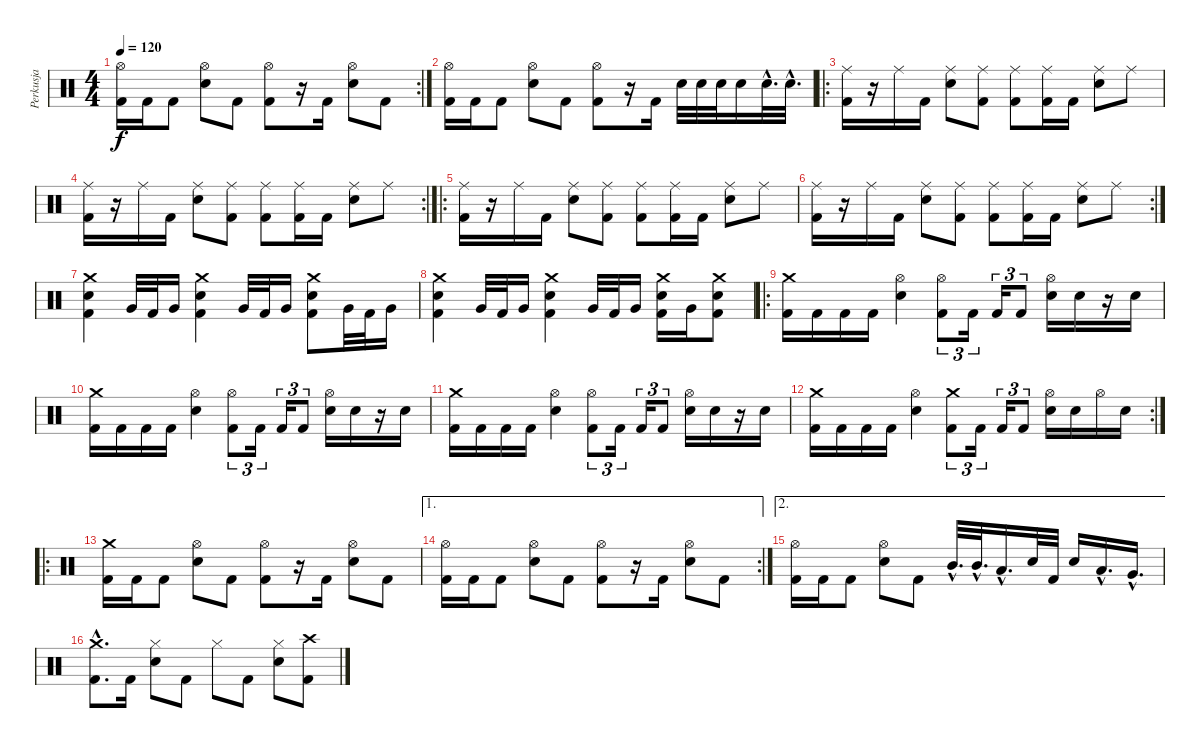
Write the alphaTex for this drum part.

\track ("Perkusja" "Perkusja") {instrument percussion}
\staff {score}
\articulation defaults
\rc 2
\ts (4 4)
\tempo 120
\clef neutral
\ks c
("Hi-Hat (open)" "Kick (hit) 2").16{dy f} "Kick (hit) 2".16 "Kick (hit) 2".8 ("Hi-Hat (open)" "Snare (hit) 2").8 "Kick (hit) 2".8 ("Hi-Hat (open)" "Kick (hit) 2").8 r.16 "Kick (hit) 2".16 ("Hi-Hat (open)" "Snare (hit) 2").8 "Kick (hit) 2".8 |
("Hi-Hat (open)" "Kick (hit) 2").16 "Kick (hit) 2".16 "Kick (hit) 2".8 ("Hi-Hat (open)" "Snare (hit) 2").8 "Kick (hit) 2".8 ("Hi-Hat (open)" "Kick (hit) 2").8 r.16 "Kick (hit) 2".16 "Snare (hit) 2".32 "Snare (hit) 2".32 "Snare (hit) 2".32 "Snare (hit) 2".16 "Snare (hit) 2"{hac}.32{d} "Snare (hit) 2"{hac}.32{d} |
\ro
("Ride (middle)" "Kick (hit) 2").16 r.16 "Ride (middle)".16 "Kick (hit) 2".16 ("Ride (middle)" "Snare (hit) 2").8 ("Ride (middle)" "Kick (hit) 2").8 ("Ride (middle)" "Kick (hit) 2").8 ("Ride (middle)" "Kick (hit) 2").16 "Kick (hit) 2".16 ("Ride (middle)" "Snare (hit) 2").8 "Ride (middle)".8 |
\rc 2
("Ride (middle)" "Kick (hit) 2").16 r.16 "Ride (middle)".16 "Kick (hit) 2".16 ("Ride (middle)" "Snare (hit) 2").8 ("Ride (middle)" "Kick (hit) 2").8 ("Ride (middle)" "Kick (hit) 2").8 ("Ride (middle)" "Kick (hit) 2").16 "Kick (hit) 2".16 ("Ride (middle)" "Snare (hit) 2").8 "Ride (middle)".8 |
\ro
("Ride (middle)" "Kick (hit) 2").16 r.16 "Ride (middle)".16 "Kick (hit) 2".16 ("Ride (middle)" "Snare (hit) 2").8 ("Ride (middle)" "Kick (hit) 2").8 ("Ride (middle)" "Kick (hit) 2").8 ("Ride (middle)" "Kick (hit) 2").16 "Kick (hit) 2".16 ("Ride (middle)" "Snare (hit) 2").8 "Ride (middle)".8 |
\rc 2
("Ride (middle)" "Kick (hit) 2").16 r.16 "Ride (middle)".16 "Kick (hit) 2".16 ("Ride (middle)" "Snare (hit) 2").8 ("Ride (middle)" "Kick (hit) 2").8 ("Ride (middle)" "Kick (hit) 2").8 ("Ride (middle)" "Kick (hit) 2").16 "Kick (hit) 2".16 ("Ride (middle)" "Snare (hit) 2").8 "Ride (middle)".8 |
("Crash medium (hit)" "Snare (hit) 2" "Kick (hit) 2").4 "Very Low Tom (hit)".32 "Kick (hit) 2".32 "Very Low Tom (hit)".16 ("Crash medium (hit)" "Snare (hit) 2" "Kick (hit) 2").4 "Very Low Tom (hit)".32 "Kick (hit) 2".32 "Very Low Tom (hit)".16 ("Crash medium (hit)" "Snare (hit) 2" "Kick (hit) 2").8 "Very Low Tom (hit)".32 "Kick (hit) 2".32 "Very Low Tom (hit)".16 |
("Crash medium (hit)" "Snare (hit) 2" "Kick (hit) 2").4 "Very Low Tom (hit)".32 "Kick (hit) 2".32 "Very Low Tom (hit)".16 ("Crash medium (hit)" "Snare (hit) 2" "Kick (hit) 2").4 "Very Low Tom (hit)".32 "Kick (hit) 2".32 "Very Low Tom (hit)".16 ("Crash medium (hit)" "Snare (hit) 2" "Kick (hit) 2").16 "Very Low Tom (hit)".16 ("Crash medium (hit)" "Snare (hit) 2" "Kick (hit) 2").8 |
\ro
("Crash medium (hit)" "Kick (hit) 2").16 "Kick (hit) 2".16 "Kick (hit) 2".16 "Kick (hit) 2".16 ("Hi-Hat (open)" "Snare (hit) 2").4 ("Hi-Hat (open)" "Kick (hit) 2").8{tu (3 2)} "Kick (hit) 2".16{tu (3 2)} "Kick (hit) 2".16{tu (3 2)} "Kick (hit) 2".8{tu (3 2)} ("Hi-Hat (open)" "Snare (hit) 2").16 "Snare (hit) 2".16 r.16 "Snare (hit) 2".16 |
("Crash medium (hit)" "Kick (hit) 2").16 "Kick (hit) 2".16 "Kick (hit) 2".16 "Kick (hit) 2".16 ("Hi-Hat (open)" "Snare (hit) 2").4 ("Hi-Hat (open)" "Kick (hit) 2").8{tu (3 2)} "Kick (hit) 2".16{tu (3 2)} "Kick (hit) 2".16{tu (3 2)} "Kick (hit) 2".8{tu (3 2)} ("Hi-Hat (open)" "Snare (hit) 2").16 "Snare (hit) 2".16 r.16 "Snare (hit) 2".16 |
("Crash medium (hit)" "Kick (hit) 2").16 "Kick (hit) 2".16 "Kick (hit) 2".16 "Kick (hit) 2".16 ("Hi-Hat (open)" "Snare (hit) 2").4 ("Hi-Hat (open)" "Kick (hit) 2").8{tu (3 2)} "Kick (hit) 2".16{tu (3 2)} "Kick (hit) 2".16{tu (3 2)} "Kick (hit) 2".8{tu (3 2)} ("Hi-Hat (open)" "Snare (hit) 2").16 "Snare (hit) 2".16 r.16 "Snare (hit) 2".16 |
\rc 2
("Crash medium (hit)" "Kick (hit) 2").16 "Kick (hit) 2".16 "Kick (hit) 2".16 "Kick (hit) 2".16 ("Hi-Hat (open)" "Snare (hit) 2").4 ("Crash medium (hit)" "Kick (hit) 2").8{tu (3 2)} "Kick (hit) 2".16{tu (3 2)} "Kick (hit) 2".16{tu (3 2)} "Kick (hit) 2".8{tu (3 2)} ("Hi-Hat (open)" "Snare (hit) 2").16 "Snare (hit) 2".16 "Hi-Hat (open)".16 "Snare (hit) 2".16 |
\ro
("Crash medium (hit)" "Kick (hit) 2").16 "Kick (hit) 2".16 "Kick (hit) 2".8 ("Hi-Hat (open)" "Snare (hit) 2").8 "Kick (hit) 2".8 ("Hi-Hat (open)" "Kick (hit) 2").8 r.16 "Kick (hit) 2".16 ("Hi-Hat (open)" "Snare (hit) 2").8 "Kick (hit) 2".8 |
\ae 1
\rc 2
("Hi-Hat (open)" "Kick (hit) 2").16 "Kick (hit) 2".16 "Kick (hit) 2".8 ("Hi-Hat (open)" "Snare (hit) 2").8 "Kick (hit) 2".8 ("Hi-Hat (open)" "Kick (hit) 2").8 r.16 "Kick (hit) 2".16 ("Hi-Hat (open)" "Snare (hit) 2").8 "Kick (hit) 2".8 |
\ae 2
("Hi-Hat (open)" "Kick (hit) 2").16 "Kick (hit) 2".16 "Kick (hit) 2".8 ("Hi-Hat (open)" "Snare (hit) 2").8 "Kick (hit) 2".8 "Mid Tom (hit)"{hac}.32{d} "Mid Tom (hit)"{hac}.32{d} "Low Tom (hit)"{hac}.16{d} "Snare (hit) 2".32 "Kick (hit) 2".32 "Snare (hit) 2".16 "Low Tom (hit)"{hac}.16{d} "Very Low Tom (hit)"{hac}.16{d} |
("Crash medium (hit)"{hac} "Kick (hit) 2"{hac}).8{d} "Kick (hit) 2".16 ("Hi-Hat (closed)" "Snare (hit) 2").8 "Kick (hit) 2".8 "Hi-Hat (closed)".8 "Kick (hit) 2".8 ("Hi-Hat (closed)" "Snare (hit) 2").8 ("Crash high (hit)" "Kick (hit) 2").8
